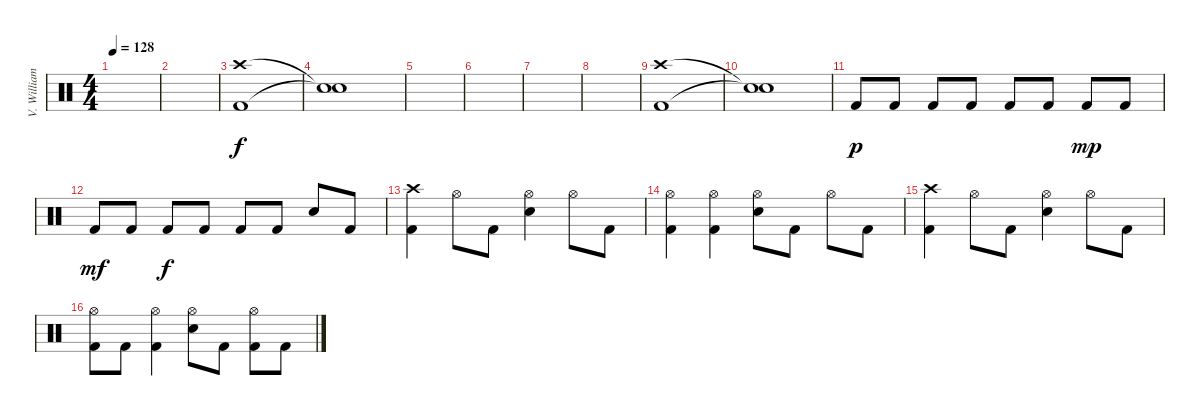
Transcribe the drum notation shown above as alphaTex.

\track ("V. Williams" "V. William") {instrument percussion}
\staff {score}
\articulation defaults
\ts (4 4)
\tempo 128
\clef neutral
\ks c
|
|
("Crash high (hit)" "Kick (hit) 2").1 |
("Snare (hit)"{t} "Snare (hit)"{t}).1 |
|
|
|
|
("Crash high (hit)" "Kick (hit) 2").1 |
("Snare (hit)"{t} "Snare (hit)"{t}).1 |
"Kick (hit) 2".8{dy p} "Kick (hit) 2".8 "Kick (hit) 2".8 "Kick (hit) 2".8 "Kick (hit) 2".8 "Kick (hit) 2".8 "Kick (hit) 2".8{dy mp} "Kick (hit) 2".8 |
"Kick (hit) 2".8{dy mf} "Kick (hit) 2".8 "Kick (hit) 2".8{dy f} "Kick (hit) 2".8 "Kick (hit) 2".8 "Kick (hit) 2".8 "Electric Snare (hit)".8 "Kick (hit) 2".8 |
\section ("" "")
("Crash high (hit)" "Kick (hit) 2").4 "Hi-Hat (open)".8 "Kick (hit) 2".8 ("Hi-Hat (open)" "Electric Snare (hit)").4 "Hi-Hat (open)".8 "Kick (hit) 2".8 |
("Hi-Hat (open)" "Kick (hit) 2").4 ("Hi-Hat (open)" "Kick (hit) 2").4 ("Hi-Hat (open)" "Electric Snare (hit)").8 "Kick (hit) 2".8 "Hi-Hat (open)".8 "Kick (hit) 2".8 |
("Crash high (hit)" "Kick (hit) 2").4 "Hi-Hat (open)".8 "Kick (hit) 2".8 ("Hi-Hat (open)" "Electric Snare (hit)").4 "Hi-Hat (open)".8 "Kick (hit) 2".8 |
("Hi-Hat (open)" "Kick (hit) 2").8 "Kick (hit) 2".8 ("Hi-Hat (open)" "Kick (hit) 2").4 ("Hi-Hat (open)" "Electric Snare (hit)").8 "Kick (hit) 2".8 ("Hi-Hat (open)" "Kick (hit) 2").8 "Kick (hit) 2".8
